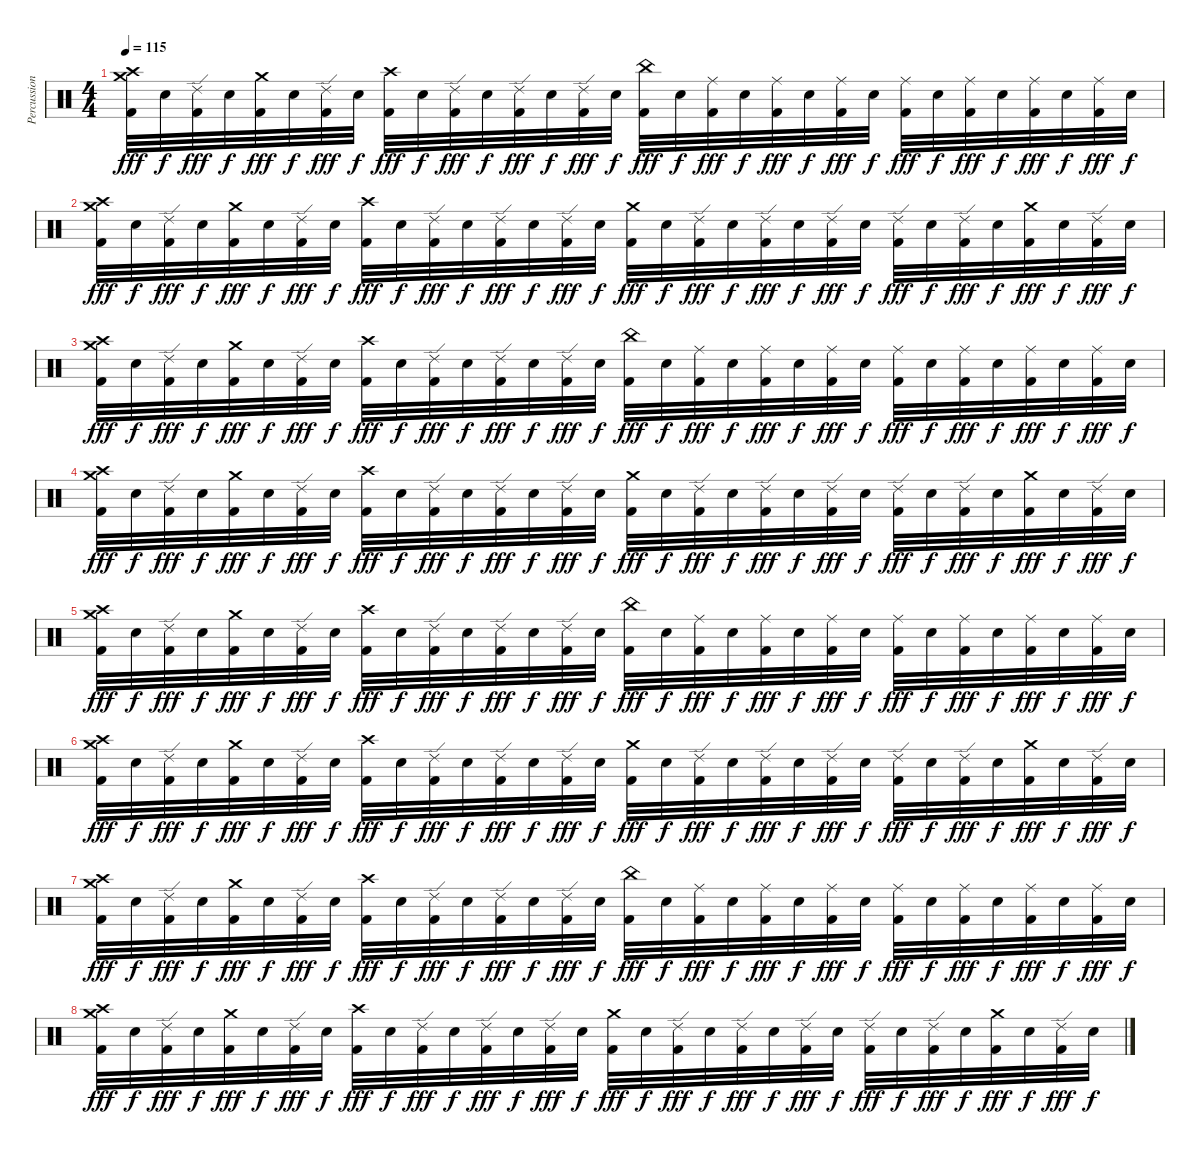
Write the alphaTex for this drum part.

\track ("Percussion" "Percussion") {instrument percussion}
\staff
\articulation defaults
\ts (4 4)
\tempo 115
\clef neutral
\ks c
("Crash high (hit)" "Crash medium (hit)" "Kick (hit) 2").32{dy fff} "Snare (hit) 2".32{dy f} ("Ride (edge) 2" "Kick (hit) 2").32{dy fff} "Snare (hit) 2".32{dy f} ("Crash medium (hit)" "Kick (hit) 2").32{dy fff} "Snare (hit) 2".32{dy f} ("Ride (edge) 2" "Kick (hit) 2").32{dy fff} "Snare (hit) 2".32{dy f} ("Crash high (hit)" "Kick (hit) 2").32{dy fff} "Snare (hit) 2".32{dy f} ("Ride (edge) 2" "Kick (hit) 2").32{dy fff} "Snare (hit) 2".32{dy f} ("Ride (edge) 2" "Kick (hit) 2").32{dy fff} "Snare (hit) 2".32{dy f} ("Ride (edge) 2" "Kick (hit) 2").32{dy fff} "Snare (hit) 2".32{dy f} ("China (hit)" "Kick (hit) 2").32{dy fff} "Snare (hit) 2".32{dy f} ("Ride (middle)" "Kick (hit) 2").32{dy fff} "Snare (hit) 2".32{dy f} ("Ride (middle)" "Kick (hit) 2").32{dy fff} "Snare (hit) 2".32{dy f} ("Ride (middle)" "Kick (hit) 2").32{dy fff} "Snare (hit) 2".32{dy f} ("Ride (middle)" "Kick (hit) 2").32{dy fff} "Snare (hit) 2".32{dy f} ("Ride (middle)" "Kick (hit) 2").32{dy fff} "Snare (hit) 2".32{dy f} ("Ride (middle)" "Kick (hit) 2").32{dy fff} "Snare (hit) 2".32{dy f} ("Ride (middle)" "Kick (hit) 2").32{dy fff} "Snare (hit) 2".32{dy f} |
("Crash high (hit)" "Crash medium (hit)" "Kick (hit) 2").32{dy fff} "Snare (hit) 2".32{dy f} ("Ride (edge) 2" "Kick (hit) 2").32{dy fff} "Snare (hit) 2".32{dy f} ("Crash medium (hit)" "Kick (hit) 2").32{dy fff} "Snare (hit) 2".32{dy f} ("Ride (edge) 2" "Kick (hit) 2").32{dy fff} "Snare (hit) 2".32{dy f} ("Crash high (hit)" "Kick (hit) 2").32{dy fff} "Snare (hit) 2".32{dy f} ("Ride (edge) 2" "Kick (hit) 2").32{dy fff} "Snare (hit) 2".32{dy f} ("Ride (edge) 2" "Kick (hit) 2").32{dy fff} "Snare (hit) 2".32{dy f} ("Ride (edge) 2" "Kick (hit) 2").32{dy fff} "Snare (hit) 2".32{dy f} ("Crash medium (hit)" "Kick (hit) 2").32{dy fff} "Snare (hit) 2".32{dy f} ("Ride (edge) 2" "Kick (hit) 2").32{dy fff} "Snare (hit) 2".32{dy f} ("Ride (edge) 2" "Kick (hit) 2").32{dy fff} "Snare (hit) 2".32{dy f} ("Ride (edge) 2" "Kick (hit) 2").32{dy fff} "Snare (hit) 2".32{dy f} ("Ride (edge) 2" "Kick (hit) 2").32{dy fff} "Snare (hit) 2".32{dy f} ("Ride (edge) 2" "Kick (hit) 2").32{dy fff} "Snare (hit) 2".32{dy f} ("Crash medium (hit)" "Kick (hit) 2").32{dy fff} "Snare (hit) 2".32{dy f} ("Ride (edge) 2" "Kick (hit) 2").32{dy fff} "Snare (hit) 2".32{dy f} |
("Crash high (hit)" "Crash medium (hit)" "Kick (hit) 2").32{dy fff} "Snare (hit) 2".32{dy f} ("Ride (edge) 2" "Kick (hit) 2").32{dy fff} "Snare (hit) 2".32{dy f} ("Crash medium (hit)" "Kick (hit) 2").32{dy fff} "Snare (hit) 2".32{dy f} ("Ride (edge) 2" "Kick (hit) 2").32{dy fff} "Snare (hit) 2".32{dy f} ("Crash high (hit)" "Kick (hit) 2").32{dy fff} "Snare (hit) 2".32{dy f} ("Ride (edge) 2" "Kick (hit) 2").32{dy fff} "Snare (hit) 2".32{dy f} ("Ride (edge) 2" "Kick (hit) 2").32{dy fff} "Snare (hit) 2".32{dy f} ("Ride (edge) 2" "Kick (hit) 2").32{dy fff} "Snare (hit) 2".32{dy f} ("China (hit)" "Kick (hit) 2").32{dy fff} "Snare (hit) 2".32{dy f} ("Ride (middle)" "Kick (hit) 2").32{dy fff} "Snare (hit) 2".32{dy f} ("Ride (middle)" "Kick (hit) 2").32{dy fff} "Snare (hit) 2".32{dy f} ("Ride (middle)" "Kick (hit) 2").32{dy fff} "Snare (hit) 2".32{dy f} ("Ride (middle)" "Kick (hit) 2").32{dy fff} "Snare (hit) 2".32{dy f} ("Ride (middle)" "Kick (hit) 2").32{dy fff} "Snare (hit) 2".32{dy f} ("Ride (middle)" "Kick (hit) 2").32{dy fff} "Snare (hit) 2".32{dy f} ("Ride (middle)" "Kick (hit) 2").32{dy fff} "Snare (hit) 2".32{dy f} |
("Crash high (hit)" "Crash medium (hit)" "Kick (hit) 2").32{dy fff} "Snare (hit) 2".32{dy f} ("Ride (edge) 2" "Kick (hit) 2").32{dy fff} "Snare (hit) 2".32{dy f} ("Crash medium (hit)" "Kick (hit) 2").32{dy fff} "Snare (hit) 2".32{dy f} ("Ride (edge) 2" "Kick (hit) 2").32{dy fff} "Snare (hit) 2".32{dy f} ("Crash high (hit)" "Kick (hit) 2").32{dy fff} "Snare (hit) 2".32{dy f} ("Ride (edge) 2" "Kick (hit) 2").32{dy fff} "Snare (hit) 2".32{dy f} ("Ride (edge) 2" "Kick (hit) 2").32{dy fff} "Snare (hit) 2".32{dy f} ("Ride (edge) 2" "Kick (hit) 2").32{dy fff} "Snare (hit) 2".32{dy f} ("Crash medium (hit)" "Kick (hit) 2").32{dy fff} "Snare (hit) 2".32{dy f} ("Ride (edge) 2" "Kick (hit) 2").32{dy fff} "Snare (hit) 2".32{dy f} ("Ride (edge) 2" "Kick (hit) 2").32{dy fff} "Snare (hit) 2".32{dy f} ("Ride (edge) 2" "Kick (hit) 2").32{dy fff} "Snare (hit) 2".32{dy f} ("Ride (edge) 2" "Kick (hit) 2").32{dy fff} "Snare (hit) 2".32{dy f} ("Ride (edge) 2" "Kick (hit) 2").32{dy fff} "Snare (hit) 2".32{dy f} ("Crash medium (hit)" "Kick (hit) 2").32{dy fff} "Snare (hit) 2".32{dy f} ("Ride (edge) 2" "Kick (hit) 2").32{dy fff} "Snare (hit) 2".32{dy f} |
("Crash high (hit)" "Crash medium (hit)" "Kick (hit) 2").32{dy fff} "Snare (hit) 2".32{dy f} ("Ride (edge) 2" "Kick (hit) 2").32{dy fff} "Snare (hit) 2".32{dy f} ("Crash medium (hit)" "Kick (hit) 2").32{dy fff} "Snare (hit) 2".32{dy f} ("Ride (edge) 2" "Kick (hit) 2").32{dy fff} "Snare (hit) 2".32{dy f} ("Crash high (hit)" "Kick (hit) 2").32{dy fff} "Snare (hit) 2".32{dy f} ("Ride (edge) 2" "Kick (hit) 2").32{dy fff} "Snare (hit) 2".32{dy f} ("Ride (edge) 2" "Kick (hit) 2").32{dy fff} "Snare (hit) 2".32{dy f} ("Ride (edge) 2" "Kick (hit) 2").32{dy fff} "Snare (hit) 2".32{dy f} ("China (hit)" "Kick (hit) 2").32{dy fff} "Snare (hit) 2".32{dy f} ("Ride (middle)" "Kick (hit) 2").32{dy fff} "Snare (hit) 2".32{dy f} ("Ride (middle)" "Kick (hit) 2").32{dy fff} "Snare (hit) 2".32{dy f} ("Ride (middle)" "Kick (hit) 2").32{dy fff} "Snare (hit) 2".32{dy f} ("Ride (middle)" "Kick (hit) 2").32{dy fff} "Snare (hit) 2".32{dy f} ("Ride (middle)" "Kick (hit) 2").32{dy fff} "Snare (hit) 2".32{dy f} ("Ride (middle)" "Kick (hit) 2").32{dy fff} "Snare (hit) 2".32{dy f} ("Ride (middle)" "Kick (hit) 2").32{dy fff} "Snare (hit) 2".32{dy f} |
("Crash high (hit)" "Crash medium (hit)" "Kick (hit) 2").32{dy fff} "Snare (hit) 2".32{dy f} ("Ride (edge) 2" "Kick (hit) 2").32{dy fff} "Snare (hit) 2".32{dy f} ("Crash medium (hit)" "Kick (hit) 2").32{dy fff} "Snare (hit) 2".32{dy f} ("Ride (edge) 2" "Kick (hit) 2").32{dy fff} "Snare (hit) 2".32{dy f} ("Crash high (hit)" "Kick (hit) 2").32{dy fff} "Snare (hit) 2".32{dy f} ("Ride (edge) 2" "Kick (hit) 2").32{dy fff} "Snare (hit) 2".32{dy f} ("Ride (edge) 2" "Kick (hit) 2").32{dy fff} "Snare (hit) 2".32{dy f} ("Ride (edge) 2" "Kick (hit) 2").32{dy fff} "Snare (hit) 2".32{dy f} ("Crash medium (hit)" "Kick (hit) 2").32{dy fff} "Snare (hit) 2".32{dy f} ("Ride (edge) 2" "Kick (hit) 2").32{dy fff} "Snare (hit) 2".32{dy f} ("Ride (edge) 2" "Kick (hit) 2").32{dy fff} "Snare (hit) 2".32{dy f} ("Ride (edge) 2" "Kick (hit) 2").32{dy fff} "Snare (hit) 2".32{dy f} ("Ride (edge) 2" "Kick (hit) 2").32{dy fff} "Snare (hit) 2".32{dy f} ("Ride (edge) 2" "Kick (hit) 2").32{dy fff} "Snare (hit) 2".32{dy f} ("Crash medium (hit)" "Kick (hit) 2").32{dy fff} "Snare (hit) 2".32{dy f} ("Ride (edge) 2" "Kick (hit) 2").32{dy fff} "Snare (hit) 2".32{dy f} |
("Crash high (hit)" "Crash medium (hit)" "Kick (hit) 2").32{dy fff} "Snare (hit) 2".32{dy f} ("Ride (edge) 2" "Kick (hit) 2").32{dy fff} "Snare (hit) 2".32{dy f} ("Crash medium (hit)" "Kick (hit) 2").32{dy fff} "Snare (hit) 2".32{dy f} ("Ride (edge) 2" "Kick (hit) 2").32{dy fff} "Snare (hit) 2".32{dy f} ("Crash high (hit)" "Kick (hit) 2").32{dy fff} "Snare (hit) 2".32{dy f} ("Ride (edge) 2" "Kick (hit) 2").32{dy fff} "Snare (hit) 2".32{dy f} ("Ride (edge) 2" "Kick (hit) 2").32{dy fff} "Snare (hit) 2".32{dy f} ("Ride (edge) 2" "Kick (hit) 2").32{dy fff} "Snare (hit) 2".32{dy f} ("China (hit)" "Kick (hit) 2").32{dy fff} "Snare (hit) 2".32{dy f} ("Ride (middle)" "Kick (hit) 2").32{dy fff} "Snare (hit) 2".32{dy f} ("Ride (middle)" "Kick (hit) 2").32{dy fff} "Snare (hit) 2".32{dy f} ("Ride (middle)" "Kick (hit) 2").32{dy fff} "Snare (hit) 2".32{dy f} ("Ride (middle)" "Kick (hit) 2").32{dy fff} "Snare (hit) 2".32{dy f} ("Ride (middle)" "Kick (hit) 2").32{dy fff} "Snare (hit) 2".32{dy f} ("Ride (middle)" "Kick (hit) 2").32{dy fff} "Snare (hit) 2".32{dy f} ("Ride (middle)" "Kick (hit) 2").32{dy fff} "Snare (hit) 2".32{dy f} |
("Crash high (hit)" "Crash medium (hit)" "Kick (hit) 2").32{dy fff} "Snare (hit) 2".32{dy f} ("Ride (edge) 2" "Kick (hit) 2").32{dy fff} "Snare (hit) 2".32{dy f} ("Crash medium (hit)" "Kick (hit) 2").32{dy fff} "Snare (hit) 2".32{dy f} ("Ride (edge) 2" "Kick (hit) 2").32{dy fff} "Snare (hit) 2".32{dy f} ("Crash high (hit)" "Kick (hit) 2").32{dy fff} "Snare (hit) 2".32{dy f} ("Ride (edge) 2" "Kick (hit) 2").32{dy fff} "Snare (hit) 2".32{dy f} ("Ride (edge) 2" "Kick (hit) 2").32{dy fff} "Snare (hit) 2".32{dy f} ("Ride (edge) 2" "Kick (hit) 2").32{dy fff} "Snare (hit) 2".32{dy f} ("Crash medium (hit)" "Kick (hit) 2").32{dy fff} "Snare (hit) 2".32{dy f} ("Ride (edge) 2" "Kick (hit) 2").32{dy fff} "Snare (hit) 2".32{dy f} ("Ride (edge) 2" "Kick (hit) 2").32{dy fff} "Snare (hit) 2".32{dy f} ("Ride (edge) 2" "Kick (hit) 2").32{dy fff} "Snare (hit) 2".32{dy f} ("Ride (edge) 2" "Kick (hit) 2").32{dy fff} "Snare (hit) 2".32{dy f} ("Ride (edge) 2" "Kick (hit) 2").32{dy fff} "Snare (hit) 2".32{dy f} ("Crash medium (hit)" "Kick (hit) 2").32{dy fff} "Snare (hit) 2".32{dy f} ("Ride (edge) 2" "Kick (hit) 2").32{dy fff} "Snare (hit) 2".32{dy f}
